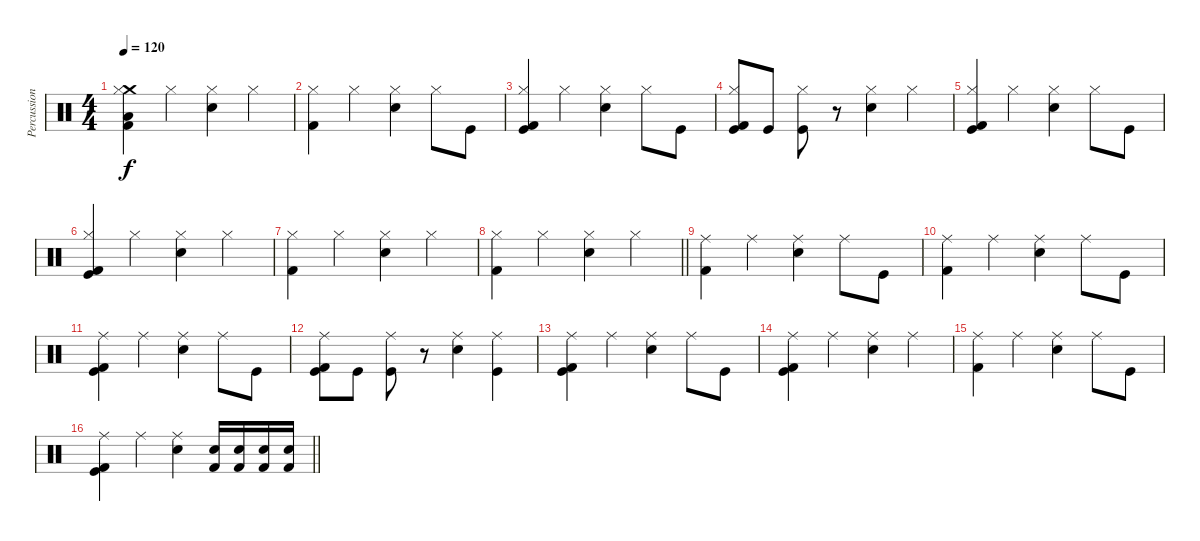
\track ("Percussions" "Percussion") {instrument percussion}
\staff {score}
\articulation defaults
\ts (4 4)
\tempo 120
\clef neutral
\ks c
("Kick (hit) 2" "Crash medium (hit)" "Low Tom (hit)" "Hi-Hat (closed)").4{dy f} "Hi-Hat (closed)".4 ("Electric Snare (hit)" "Hi-Hat (closed)").4 "Hi-Hat (closed)".4 |
("Kick (hit) 2" "Hi-Hat (closed)").4 "Hi-Hat (closed)".4 ("Electric Snare (hit)" "Hi-Hat (closed)").4 "Hi-Hat (closed)".8 "Kick (hit)".8 |
("Kick (hit) 2" "Kick (hit)" "Hi-Hat (closed)").4 "Hi-Hat (closed)".4 ("Electric Snare (hit)" "Hi-Hat (closed)").4 "Hi-Hat (closed)".8 "Kick (hit)".8 |
("Kick (hit) 2" "Kick (hit)" "Hi-Hat (closed)").8 "Kick (hit)".8 ("Kick (hit)" "Hi-Hat (closed)").8 r.8 ("Electric Snare (hit)" "Hi-Hat (closed)").4 "Hi-Hat (closed)".4 |
("Kick (hit) 2" "Kick (hit)" "Hi-Hat (closed)").4 "Hi-Hat (closed)".4 ("Electric Snare (hit)" "Hi-Hat (closed)").4 "Hi-Hat (closed)".8 "Kick (hit)".8 |
("Kick (hit) 2" "Kick (hit)" "Hi-Hat (closed)").4 "Hi-Hat (closed)".4 ("Electric Snare (hit)" "Hi-Hat (closed)").4 "Hi-Hat (closed)".4 |
("Kick (hit) 2" "Hi-Hat (closed)").4 "Hi-Hat (closed)".4 ("Electric Snare (hit)" "Hi-Hat (closed)").4 "Hi-Hat (closed)".4 |
\barLineRight lightlight
("Kick (hit) 2" "Hi-Hat (closed)").4 "Hi-Hat (closed)".4 ("Electric Snare (hit)" "Hi-Hat (closed)").4 "Hi-Hat (closed)".4 |
("Kick (hit) 2" "Ride (middle)").4 "Ride (middle)".4 ("Electric Snare (hit)" "Ride (middle)").4 "Ride (middle)".8 "Kick (hit)".8 |
("Kick (hit) 2" "Ride (middle)").4 "Ride (middle)".4 ("Electric Snare (hit)" "Ride (middle)").4 "Ride (middle)".8 "Kick (hit)".8 |
("Kick (hit) 2" "Kick (hit)" "Ride (middle)").4 "Ride (middle)".4 ("Electric Snare (hit)" "Ride (middle)").4 "Ride (middle)".8 "Kick (hit)".8 |
("Kick (hit) 2" "Kick (hit)" "Ride (middle)").8 "Kick (hit)".8 ("Kick (hit)" "Ride (middle)").8 r.8 ("Electric Snare (hit)" "Ride (middle)").4 ("Kick (hit)" "Ride (middle)").4 |
("Kick (hit) 2" "Kick (hit)" "Ride (middle)").4 "Ride (middle)".4 ("Electric Snare (hit)" "Ride (middle)").4 "Ride (middle)".8 "Kick (hit)".8 |
("Kick (hit) 2" "Kick (hit)" "Ride (middle)").4 "Ride (middle)".4 ("Electric Snare (hit)" "Ride (middle)").4 "Ride (middle)".4 |
("Kick (hit) 2" "Ride (middle)").4 "Ride (middle)".4 ("Electric Snare (hit)" "Ride (middle)").4 "Ride (middle)".8 "Kick (hit)".8 |
\barLineRight lightlight
("Kick (hit) 2" "Kick (hit)" "Ride (middle)").4 "Ride (middle)".4 ("Electric Snare (hit)" "Ride (middle)").4 ("Kick (hit) 2" "Electric Snare (hit)").16 ("Kick (hit) 2" "Electric Snare (hit)").16 ("Kick (hit) 2" "Electric Snare (hit)").16 ("Kick (hit) 2" "Electric Snare (hit)").16
